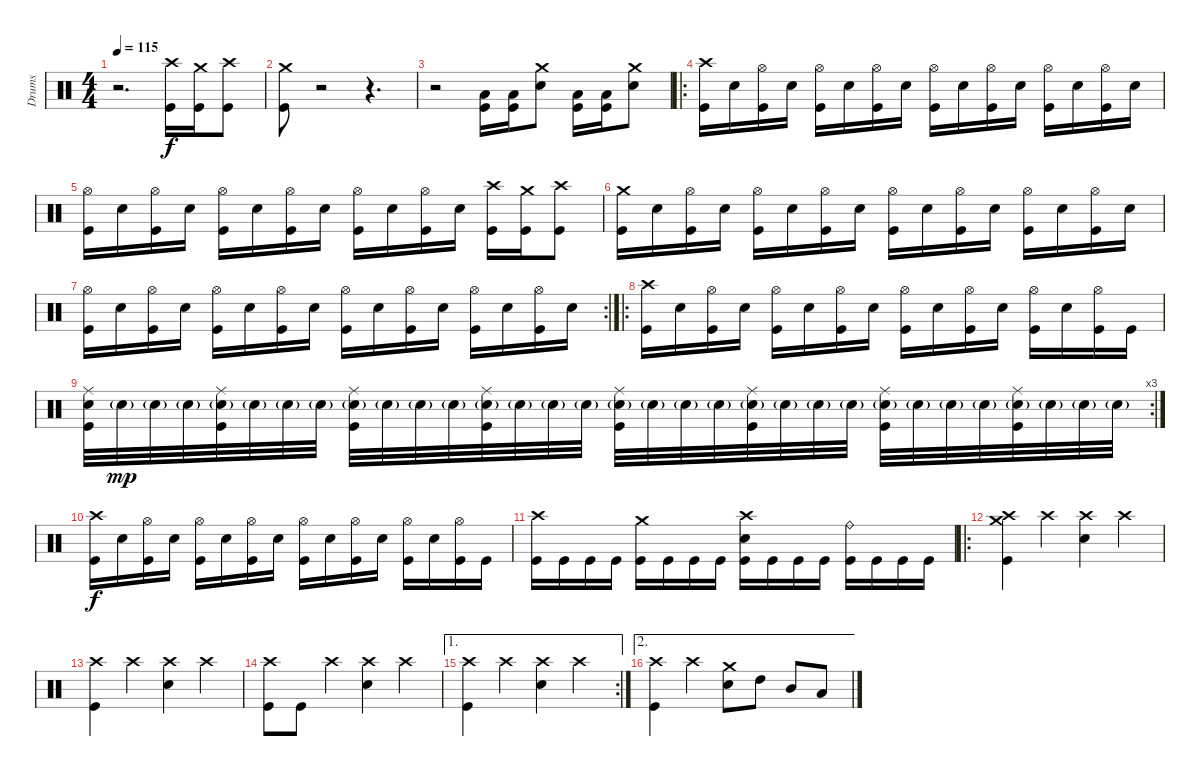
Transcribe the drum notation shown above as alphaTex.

\track ("Drums" "Drums") {instrument percussion}
\staff
\articulation defaults
\ts (4 4)
\tempo 115
\clef neutral
\ks c
r.2{d dy f} ("Crash high (hit)" "Kick (hit)").16 ("Crash medium (hit)" "Kick (hit)").16 ("Crash high (hit)" "Kick (hit)").8 |
("Crash medium (hit)" "Kick (hit)").8 r.2 r.4{d} |
r.2 ("Low Tom (hit)" "Kick (hit)").16 ("Low Tom (hit)" "Kick (hit)").16 ("Crash medium (hit)" "Snare (hit) 2").8 ("Low Tom (hit)" "Kick (hit)").16 ("Low Tom (hit)" "Kick (hit)").16 ("Crash medium (hit)" "Snare (hit) 2").8 |
\ro
("Crash high (hit)" "Kick (hit)").16 "Snare (hit) 2".16 ("Hi-Hat (open)" "Kick (hit)").16 "Snare (hit) 2".16 ("Hi-Hat (open)" "Kick (hit)").16 "Snare (hit) 2".16 ("Hi-Hat (open)" "Kick (hit)").16 "Snare (hit) 2".16 ("Hi-Hat (open)" "Kick (hit)").16 "Snare (hit) 2".16 ("Hi-Hat (open)" "Kick (hit)").16 "Snare (hit) 2".16 ("Hi-Hat (open)" "Kick (hit)").16 "Snare (hit) 2".16 ("Hi-Hat (open)" "Kick (hit)").16 "Snare (hit) 2".16 |
("Hi-Hat (open)" "Kick (hit)").16 "Snare (hit) 2".16 ("Hi-Hat (open)" "Kick (hit)").16 "Snare (hit) 2".16 ("Hi-Hat (open)" "Kick (hit)").16 "Snare (hit) 2".16 ("Hi-Hat (open)" "Kick (hit)").16 "Snare (hit) 2".16 ("Hi-Hat (open)" "Kick (hit)").16 "Snare (hit) 2".16 ("Hi-Hat (open)" "Kick (hit)").16 "Snare (hit) 2".16 ("Crash high (hit)" "Kick (hit)").16 ("Crash medium (hit)" "Kick (hit)").16 ("Crash high (hit)" "Kick (hit)").8 |
("Crash medium (hit)" "Kick (hit)").16 "Snare (hit) 2".16 ("Hi-Hat (open)" "Kick (hit)").16 "Snare (hit) 2".16 ("Hi-Hat (open)" "Kick (hit)").16 "Snare (hit) 2".16 ("Hi-Hat (open)" "Kick (hit)").16 "Snare (hit) 2".16 ("Hi-Hat (open)" "Kick (hit)").16 "Snare (hit) 2".16 ("Hi-Hat (open)" "Kick (hit)").16 "Snare (hit) 2".16 ("Hi-Hat (open)" "Kick (hit)").16 "Snare (hit) 2".16 ("Hi-Hat (open)" "Kick (hit)").16 "Snare (hit) 2".16 |
\rc 2
("Hi-Hat (open)" "Kick (hit)").16 "Snare (hit) 2".16 ("Hi-Hat (open)" "Kick (hit)").16 "Snare (hit) 2".16 ("Hi-Hat (open)" "Kick (hit)").16 "Snare (hit) 2".16 ("Hi-Hat (open)" "Kick (hit)").16 "Snare (hit) 2".16 ("Hi-Hat (open)" "Kick (hit)").16 "Snare (hit) 2".16 ("Hi-Hat (open)" "Kick (hit)").16 "Snare (hit) 2".16 ("Hi-Hat (open)" "Kick (hit)").16 "Snare (hit) 2".16 ("Hi-Hat (open)" "Kick (hit)").16 "Snare (hit) 2".16 |
\ro
("Crash high (hit)" "Kick (hit)").16 "Snare (hit) 2".16 ("Hi-Hat (open)" "Kick (hit)").16 "Snare (hit) 2".16 ("Hi-Hat (open)" "Kick (hit)").16 "Snare (hit) 2".16 ("Hi-Hat (open)" "Kick (hit)").16 "Snare (hit) 2".16 ("Hi-Hat (open)" "Kick (hit)").16 "Snare (hit) 2".16 ("Hi-Hat (open)" "Kick (hit)").16 "Snare (hit) 2".16 ("Hi-Hat (open)" "Kick (hit)").16 "Snare (hit) 2".16 ("Hi-Hat (open)" "Kick (hit)").16 "Kick (hit)".16 |
\rc 3
("Ride (middle)" "Snare (hit) 2" "Kick (hit)").32 "Snare (hit) 2"{g}.32{dy mp} "Snare (hit) 2"{g}.32 "Snare (hit) 2"{g}.32 ("Ride (middle)" "Snare (hit) 2"{g} "Kick (hit)").32 "Snare (hit) 2"{g}.32 "Snare (hit) 2"{g}.32 "Snare (hit) 2"{g}.32 ("Ride (middle)" "Snare (hit) 2"{g} "Kick (hit)").32 "Snare (hit) 2"{g}.32 "Snare (hit) 2"{g}.32 "Snare (hit) 2"{g}.32 ("Ride (middle)" "Snare (hit) 2"{g} "Kick (hit)").32 "Snare (hit) 2"{g}.32 "Snare (hit) 2"{g}.32 "Snare (hit) 2"{g}.32 ("Ride (middle)" "Snare (hit) 2"{g} "Kick (hit)").32 "Snare (hit) 2"{g}.32 "Snare (hit) 2"{g}.32 "Snare (hit) 2"{g}.32 ("Ride (middle)" "Snare (hit) 2"{g} "Kick (hit)").32 "Snare (hit) 2"{g}.32 "Snare (hit) 2"{g}.32 "Snare (hit) 2"{g}.32 ("Ride (middle)" "Snare (hit) 2"{g} "Kick (hit)").32 "Snare (hit) 2"{g}.32 "Snare (hit) 2"{g}.32 "Snare (hit) 2"{g}.32 ("Ride (middle)" "Snare (hit) 2"{g} "Kick (hit)").32 "Snare (hit) 2"{g}.32 "Snare (hit) 2"{g}.32 "Snare (hit) 2"{g}.32 |
("Crash high (hit)" "Kick (hit)").16{dy f} "Snare (hit) 2".16 ("Hi-Hat (open)" "Kick (hit)").16 "Snare (hit) 2".16 ("Hi-Hat (open)" "Kick (hit)").16 "Snare (hit) 2".16 ("Hi-Hat (open)" "Kick (hit)").16 "Snare (hit) 2".16 ("Hi-Hat (open)" "Kick (hit)").16 "Snare (hit) 2".16 ("Hi-Hat (open)" "Kick (hit)").16 "Snare (hit) 2".16 ("Hi-Hat (open)" "Kick (hit)").16 "Snare (hit) 2".16 ("Hi-Hat (open)" "Kick (hit)").16 "Kick (hit)".16 |
("Crash high (hit)" "Kick (hit)").16 "Kick (hit)".16 "Kick (hit)".16 "Kick (hit)".16 ("Crash medium (hit)" "Kick (hit)").16 "Kick (hit)".16 "Kick (hit)".16 "Kick (hit)".16 ("Crash high (hit)" "Snare (hit) 2" "Kick (hit)").16 "Kick (hit)".16 "Kick (hit)".16 "Kick (hit)".16 ("Ride (bell)" "Kick (hit)").16 "Kick (hit)".16 "Kick (hit)".16 "Kick (hit)".16 |
\ro
("Crash medium (hit)" "Crash high (hit)" "Kick (hit)").4 "Crash high (hit)".4 ("Crash high (hit)" "Snare (hit) 2").4 "Crash high (hit)".4 |
("Crash high (hit)" "Kick (hit)").4 "Crash high (hit)".4 ("Crash high (hit)" "Snare (hit) 2").4 "Crash high (hit)".4 |
("Crash high (hit)" "Kick (hit)").8 "Kick (hit)".8 "Crash high (hit)".4 ("Crash high (hit)" "Snare (hit) 2").4 "Crash high (hit)".4 |
\ae 1
\rc 2
("Crash high (hit)" "Kick (hit)").4 "Crash high (hit)".4 ("Crash high (hit)" "Snare (hit) 2").4 "Crash high (hit)".4 |
\ae 2
("Crash high (hit)" "Kick (hit)").4 "Crash high (hit)".4 ("Crash medium (hit)" "Snare (hit) 2").8 "High Tom (hit)".8 "Mid Tom (hit)".8 "Low Tom (hit)".8
